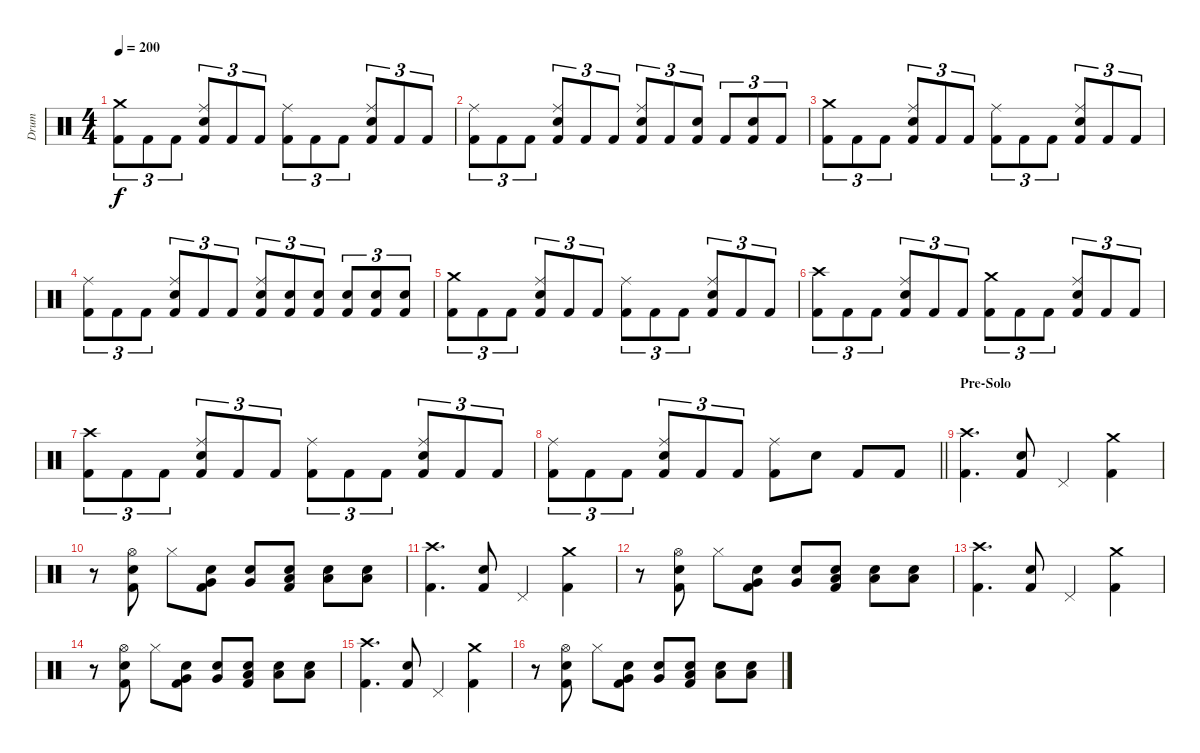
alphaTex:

\track ("Drum" "Drum") {instrument percussion}
\staff {score}
\articulation defaults
\ts (4 4)
\tempo 200
\clef neutral
\ks c
("Crash medium (hit)" "Kick (hit) 2").8{tu (3 2) dy f} "Kick (hit) 2".8{tu (3 2)} "Kick (hit) 2".8{tu (3 2)} ("Ride (middle)" "Electric Snare (hit)" "Kick (hit) 2").8{tu (3 2)} "Kick (hit) 2".8{tu (3 2)} "Kick (hit) 2".8{tu (3 2)} ("Ride (middle)" "Kick (hit) 2").8{tu (3 2)} "Kick (hit) 2".8{tu (3 2)} "Kick (hit) 2".8{tu (3 2)} ("Ride (middle)" "Electric Snare (hit)" "Kick (hit) 2").8{tu (3 2)} "Kick (hit) 2".8{tu (3 2)} "Kick (hit) 2".8{tu (3 2)} |
("Ride (middle)" "Kick (hit) 2").8{tu (3 2)} "Kick (hit) 2".8{tu (3 2)} "Kick (hit) 2".8{tu (3 2)} ("Ride (middle)" "Electric Snare (hit)" "Kick (hit) 2").8{tu (3 2)} "Kick (hit) 2".8{tu (3 2)} "Kick (hit) 2".8{tu (3 2)} ("Ride (middle)" "Electric Snare (hit)" "Kick (hit) 2").8{tu (3 2)} "Kick (hit) 2".8{tu (3 2)} ("Electric Snare (hit)" "Kick (hit) 2").8{tu (3 2)} "Kick (hit) 2".8{tu (3 2)} ("Electric Snare (hit)" "Kick (hit) 2").8{tu (3 2)} "Kick (hit) 2".8{tu (3 2)} |
("Crash medium (hit)" "Kick (hit) 2").8{tu (3 2)} "Kick (hit) 2".8{tu (3 2)} "Kick (hit) 2".8{tu (3 2)} ("Ride (middle)" "Electric Snare (hit)" "Kick (hit) 2").8{tu (3 2)} "Kick (hit) 2".8{tu (3 2)} "Kick (hit) 2".8{tu (3 2)} ("Ride (middle)" "Kick (hit) 2").8{tu (3 2)} "Kick (hit) 2".8{tu (3 2)} "Kick (hit) 2".8{tu (3 2)} ("Ride (middle)" "Electric Snare (hit)" "Kick (hit) 2").8{tu (3 2)} "Kick (hit) 2".8{tu (3 2)} "Kick (hit) 2".8{tu (3 2)} |
("Ride (middle)" "Kick (hit) 2").8{tu (3 2)} "Kick (hit) 2".8{tu (3 2)} "Kick (hit) 2".8{tu (3 2)} ("Ride (middle)" "Electric Snare (hit)" "Kick (hit) 2").8{tu (3 2)} "Kick (hit) 2".8{tu (3 2)} "Kick (hit) 2".8{tu (3 2)} ("Ride (middle)" "Electric Snare (hit)" "Kick (hit) 2").8{tu (3 2)} ("Electric Snare (hit)" "Kick (hit) 2").8{tu (3 2)} ("Electric Snare (hit)" "Kick (hit) 2").8{tu (3 2)} ("Electric Snare (hit)" "Kick (hit) 2").8{tu (3 2)} ("Electric Snare (hit)" "Kick (hit) 2").8{tu (3 2)} ("Electric Snare (hit)" "Kick (hit) 2").8{tu (3 2)} |
("Crash medium (hit)" "Kick (hit) 2").8{tu (3 2)} "Kick (hit) 2".8{tu (3 2)} "Kick (hit) 2".8{tu (3 2)} ("Ride (middle)" "Electric Snare (hit)" "Kick (hit) 2").8{tu (3 2)} "Kick (hit) 2".8{tu (3 2)} "Kick (hit) 2".8{tu (3 2)} ("Ride (middle)" "Kick (hit) 2").8{tu (3 2)} "Kick (hit) 2".8{tu (3 2)} "Kick (hit) 2".8{tu (3 2)} ("Ride (middle)" "Electric Snare (hit)" "Kick (hit) 2").8{tu (3 2)} "Kick (hit) 2".8{tu (3 2)} "Kick (hit) 2".8{tu (3 2)} |
("Crash high (hit)" "Kick (hit) 2").8{tu (3 2)} "Kick (hit) 2".8{tu (3 2)} "Kick (hit) 2".8{tu (3 2)} ("Ride (middle)" "Electric Snare (hit)" "Kick (hit) 2").8{tu (3 2)} "Kick (hit) 2".8{tu (3 2)} "Kick (hit) 2".8{tu (3 2)} ("Crash medium (hit)" "Kick (hit) 2").8{tu (3 2)} "Kick (hit) 2".8{tu (3 2)} "Kick (hit) 2".8{tu (3 2)} ("Ride (middle)" "Electric Snare (hit)" "Kick (hit) 2").8{tu (3 2)} "Kick (hit) 2".8{tu (3 2)} "Kick (hit) 2".8{tu (3 2)} |
("Crash high (hit)" "Kick (hit) 2").8{tu (3 2)} "Kick (hit) 2".8{tu (3 2)} "Kick (hit) 2".8{tu (3 2)} ("Ride (middle)" "Electric Snare (hit)" "Kick (hit) 2").8{tu (3 2)} "Kick (hit) 2".8{tu (3 2)} "Kick (hit) 2".8{tu (3 2)} ("Ride (middle)" "Kick (hit) 2").8{tu (3 2)} "Kick (hit) 2".8{tu (3 2)} "Kick (hit) 2".8{tu (3 2)} ("Ride (middle)" "Electric Snare (hit)" "Kick (hit) 2").8{tu (3 2)} "Kick (hit) 2".8{tu (3 2)} "Kick (hit) 2".8{tu (3 2)} |
\barLineRight lightlight
("Ride (middle)" "Kick (hit) 2").8{tu (3 2)} "Kick (hit) 2".8{tu (3 2)} "Kick (hit) 2".8{tu (3 2)} ("Ride (middle)" "Electric Snare (hit)" "Kick (hit) 2").8{tu (3 2)} "Kick (hit) 2".8{tu (3 2)} "Kick (hit) 2".8{tu (3 2)} ("Ride (middle)" "Kick (hit) 2").8 "Electric Snare (hit)".8 "Kick (hit) 2".8 "Kick (hit) 2".8 |
\section ("" "Pre-Solo")
("Crash high (hit)" "Kick (hit) 2").4{d} ("Electric Snare (hit)" "Kick (hit) 2").8 "Pedal Hi-Hat (hit)".4 ("Crash medium (hit)" "Kick (hit) 2").4 |
r.8 ("Hi-Hat (open)" "Electric Snare (hit)" "Kick (hit) 2").8 "Hi-Hat (closed)".8 ("Electric Snare (hit)" "Very Low Tom (hit)" "Kick (hit) 2").8 ("Electric Snare (hit)" "Very Low Tom (hit)").8 ("Electric Snare (hit)" "Low Floor Tom (hit)" "Kick (hit) 2").8 ("Electric Snare (hit)" "Low Floor Tom (hit)").8 ("Electric Snare (hit)" "Low Floor Tom (hit)").8 |
("Crash high (hit)" "Kick (hit) 2").4{d} ("Electric Snare (hit)" "Kick (hit) 2").8 "Pedal Hi-Hat (hit)".4 ("Crash medium (hit)" "Kick (hit) 2").4 |
r.8 ("Hi-Hat (open)" "Electric Snare (hit)" "Kick (hit) 2").8 "Hi-Hat (closed)".8 ("Electric Snare (hit)" "Very Low Tom (hit)" "Kick (hit) 2").8 ("Electric Snare (hit)" "Very Low Tom (hit)").8 ("Electric Snare (hit)" "Low Floor Tom (hit)" "Kick (hit) 2").8 ("Electric Snare (hit)" "Low Floor Tom (hit)").8 ("Electric Snare (hit)" "Low Floor Tom (hit)").8 |
("Crash high (hit)" "Kick (hit) 2").4{d} ("Electric Snare (hit)" "Kick (hit) 2").8 "Pedal Hi-Hat (hit)".4 ("Crash medium (hit)" "Kick (hit) 2").4 |
r.8 ("Hi-Hat (open)" "Electric Snare (hit)" "Kick (hit) 2").8 "Hi-Hat (closed)".8 ("Electric Snare (hit)" "Very Low Tom (hit)" "Kick (hit) 2").8 ("Electric Snare (hit)" "Very Low Tom (hit)").8 ("Electric Snare (hit)" "Low Floor Tom (hit)" "Kick (hit) 2").8 ("Electric Snare (hit)" "Low Floor Tom (hit)").8 ("Electric Snare (hit)" "Low Floor Tom (hit)").8 |
("Crash high (hit)" "Kick (hit) 2").4{d} ("Electric Snare (hit)" "Kick (hit) 2").8 "Pedal Hi-Hat (hit)".4 ("Crash medium (hit)" "Kick (hit) 2").4 |
r.8 ("Hi-Hat (open)" "Electric Snare (hit)" "Kick (hit) 2").8 "Hi-Hat (closed)".8 ("Electric Snare (hit)" "Very Low Tom (hit)" "Kick (hit) 2").8 ("Electric Snare (hit)" "Very Low Tom (hit)").8 ("Electric Snare (hit)" "Low Floor Tom (hit)" "Kick (hit) 2").8 ("Electric Snare (hit)" "Low Floor Tom (hit)").8 ("Electric Snare (hit)" "Low Floor Tom (hit)").8
